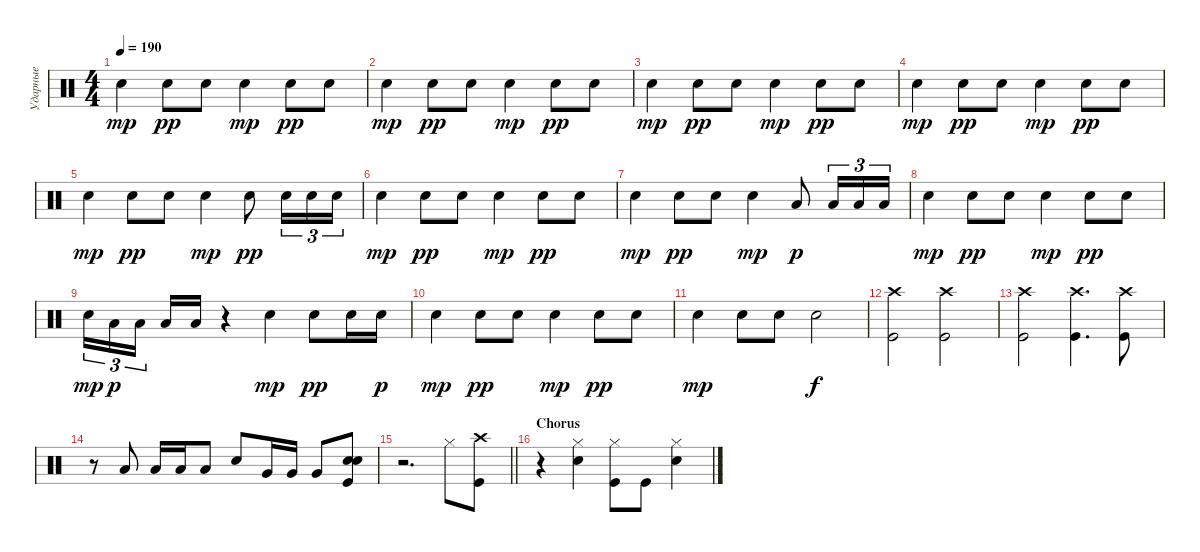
\track ("Ударные" "Ударные") {instrument percussion}
\staff {score}
\articulation defaults
\ts (4 4)
\tempo 190
\clef neutral
\ks aminor "Snare (hit) 2".4{dy mp} "Snare (hit) 2".8{dy pp} "Snare (hit) 2".8 "Snare (hit) 2".4{dy mp} "Snare (hit) 2".8{dy pp} "Snare (hit) 2".8
|
"Snare (hit) 2".4{dy mp} "Snare (hit) 2".8{dy pp} "Snare (hit) 2".8 "Snare (hit) 2".4{dy mp} "Snare (hit) 2".8{dy pp} "Snare (hit) 2".8 |
"Snare (hit) 2".4{dy mp} "Snare (hit) 2".8{dy pp} "Snare (hit) 2".8 "Snare (hit) 2".4{dy mp} "Snare (hit) 2".8{dy pp} "Snare (hit) 2".8 |
"Snare (hit) 2".4{dy mp} "Snare (hit) 2".8{dy pp} "Snare (hit) 2".8 "Snare (hit) 2".4{dy mp} "Snare (hit) 2".8{dy pp} "Snare (hit) 2".8 |
"Snare (hit) 2".4{dy mp} "Snare (hit) 2".8{dy pp} "Snare (hit) 2".8 "Snare (hit) 2".4{dy mp} "Snare (hit) 2".8{dy pp} "Snare (hit) 2".16{tu (3 2)} "Snare (hit) 2".16{tu (3 2)} "Snare (hit) 2".16{tu (3 2)} |
"Snare (hit) 2".4{dy mp} "Snare (hit) 2".8{dy pp} "Snare (hit) 2".8 "Snare (hit) 2".4{dy mp} "Snare (hit) 2".8{dy pp} "Snare (hit) 2".8 |
"Snare (hit) 2".4{dy mp} "Snare (hit) 2".8{dy pp} "Snare (hit) 2".8 "Snare (hit) 2".4{dy mp} "Low Tom (hit)".8{dy p} "Low Tom (hit)".16{tu (3 2)} "Low Tom (hit)".16{tu (3 2)} "Low Tom (hit)".16{tu (3 2)} |
"Snare (hit) 2".4{dy mp} "Snare (hit) 2".8{dy pp} "Snare (hit) 2".8 "Snare (hit) 2".4{dy mp} "Snare (hit) 2".8{dy pp} "Snare (hit) 2".8 |
"Snare (hit) 2".16{tu (3 2) dy mp} "Low Tom (hit)".16{tu (3 2) dy p} "Low Tom (hit)".16{tu (3 2) beam splitsecondary} "Low Tom (hit)".16 "Low Tom (hit)".16 r.4 "Snare (hit) 2".4{dy mp} "Snare (hit) 2".8{dy pp} "Snare (hit) 2".16 "Snare (hit) 2".16{dy p} |
"Snare (hit) 2".4{dy mp} "Snare (hit) 2".8{dy pp} "Snare (hit) 2".8 "Snare (hit) 2".4{dy mp} "Snare (hit) 2".8{dy pp} "Snare (hit) 2".8 |
"Snare (hit) 2".4{dy mp} "Snare (hit) 2".8 "Snare (hit) 2".8 "Snare (hit) 2".2{dy f} |
("Kick (hit)" "Crash high (hit)").2 ("Kick (hit)" "Crash high (hit)").2 |
("Kick (hit)" "Crash high (hit)").2 ("Kick (hit)" "Crash high (hit)").4{d} ("Kick (hit)" "Crash high (hit)").8 |
r.8 "Low Tom (hit)".8 "Low Tom (hit)".16 "Low Tom (hit)".16 "Low Tom (hit)".8 "Snare (hit) 2".8 "Very Low Tom (hit)".16 "Very Low Tom (hit)".16 "Very Low Tom (hit)".8 ("Snare (hit) 2" "Snare (hit) 2" "Kick (hit)").8{bd 480} |
\barLineRight lightlight
r.2{d} "Hi-Hat (closed)".8 ("Kick (hit)" "Crash high (hit)").8 |
\section ("" "Chorus")
r.4 ("Snare (hit) 2" "Hi-Hat (closed)").4 ("Kick (hit)" "Hi-Hat (closed)").8 "Kick (hit)".8 ("Snare (hit) 2" "Hi-Hat (closed)").4
